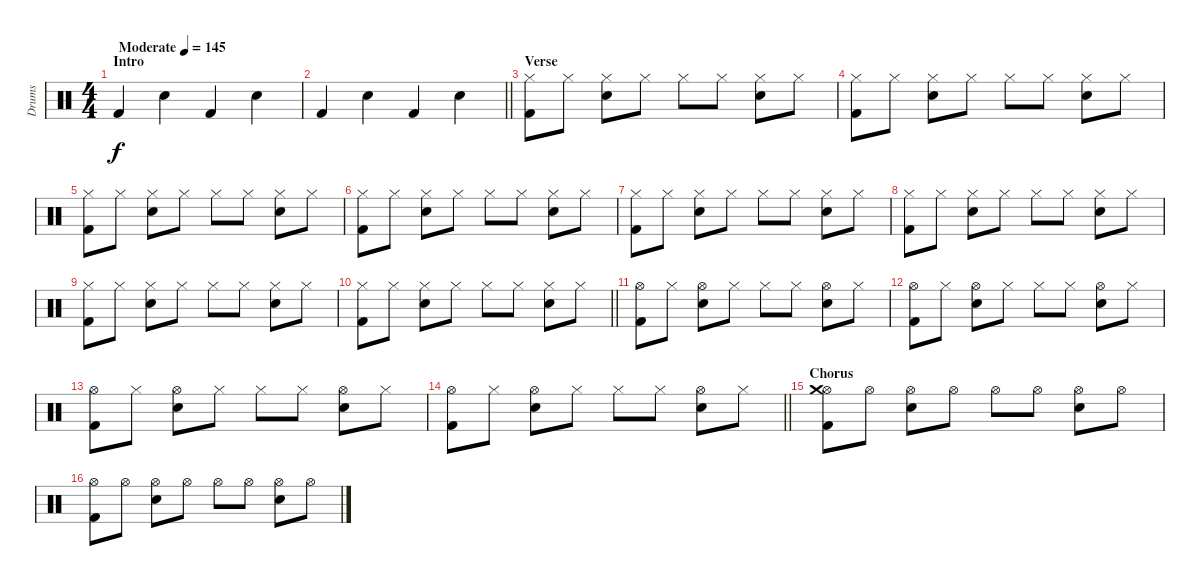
\track ("Drums" "Drums") {instrument percussion}
\staff {score}
\articulation defaults
\ts (4 4)
\section ("" "Intro")
\tempo (145 "Moderate")
\clef neutral
\ks c "Kick (hit) 2".4{dy f} "Electric Snare (hit)".4 "Kick (hit) 2".4 "Electric Snare (hit)".4
|
\barLineRight lightlight "Kick (hit) 2".4 "Electric Snare (hit)".4 "Kick (hit) 2".4 "Electric Snare (hit)".4
|
\section ("" "Verse")
("Hi-Hat (closed)" "Kick (hit) 2").8 "Hi-Hat (closed)".8 ("Hi-Hat (closed)" "Electric Snare (hit)").8 "Hi-Hat (closed)".8 "Hi-Hat (closed)".8 "Hi-Hat (closed)".8 ("Hi-Hat (closed)" "Electric Snare (hit)").8 "Hi-Hat (closed)".8 |
("Hi-Hat (closed)" "Kick (hit) 2").8 "Hi-Hat (closed)".8 ("Hi-Hat (closed)" "Electric Snare (hit)").8 "Hi-Hat (closed)".8 "Hi-Hat (closed)".8 "Hi-Hat (closed)".8 ("Hi-Hat (closed)" "Electric Snare (hit)").8 "Hi-Hat (closed)".8 |
("Hi-Hat (closed)" "Kick (hit) 2").8 "Hi-Hat (closed)".8 ("Hi-Hat (closed)" "Electric Snare (hit)").8 "Hi-Hat (closed)".8 "Hi-Hat (closed)".8 "Hi-Hat (closed)".8 ("Hi-Hat (closed)" "Electric Snare (hit)").8 "Hi-Hat (closed)".8 |
("Hi-Hat (closed)" "Kick (hit) 2").8 "Hi-Hat (closed)".8 ("Hi-Hat (closed)" "Electric Snare (hit)").8 "Hi-Hat (closed)".8 "Hi-Hat (closed)".8 "Hi-Hat (closed)".8 ("Hi-Hat (closed)" "Electric Snare (hit)").8 "Hi-Hat (closed)".8 |
("Hi-Hat (closed)" "Kick (hit) 2").8 "Hi-Hat (closed)".8 ("Hi-Hat (closed)" "Electric Snare (hit)").8 "Hi-Hat (closed)".8 "Hi-Hat (closed)".8 "Hi-Hat (closed)".8 ("Hi-Hat (closed)" "Electric Snare (hit)").8 "Hi-Hat (closed)".8 |
("Hi-Hat (closed)" "Kick (hit) 2").8 "Hi-Hat (closed)".8 ("Hi-Hat (closed)" "Electric Snare (hit)").8 "Hi-Hat (closed)".8 "Hi-Hat (closed)".8 "Hi-Hat (closed)".8 ("Hi-Hat (closed)" "Electric Snare (hit)").8 "Hi-Hat (closed)".8 |
("Hi-Hat (closed)" "Kick (hit) 2").8 "Hi-Hat (closed)".8 ("Hi-Hat (closed)" "Electric Snare (hit)").8 "Hi-Hat (closed)".8 "Hi-Hat (closed)".8 "Hi-Hat (closed)".8 ("Hi-Hat (closed)" "Electric Snare (hit)").8 "Hi-Hat (closed)".8 |
\barLineRight lightlight
("Hi-Hat (closed)" "Kick (hit) 2").8 "Hi-Hat (closed)".8 ("Hi-Hat (closed)" "Electric Snare (hit)").8 "Hi-Hat (closed)".8 "Hi-Hat (closed)".8 "Hi-Hat (closed)".8 ("Hi-Hat (closed)" "Electric Snare (hit)").8 "Hi-Hat (closed)".8 |
("Hi-Hat (open)" "Kick (hit) 2").8 "Hi-Hat (closed)".8 ("Hi-Hat (open)" "Electric Snare (hit)").8 "Hi-Hat (closed)".8 "Hi-Hat (closed)".8 "Hi-Hat (closed)".8 ("Hi-Hat (open)" "Electric Snare (hit)").8 "Hi-Hat (closed)".8 |
("Hi-Hat (open)" "Kick (hit) 2").8 "Hi-Hat (closed)".8 ("Hi-Hat (open)" "Electric Snare (hit)").8 "Hi-Hat (closed)".8 "Hi-Hat (closed)".8 "Hi-Hat (closed)".8 ("Hi-Hat (open)" "Electric Snare (hit)").8 "Hi-Hat (closed)".8 |
("Hi-Hat (open)" "Kick (hit) 2").8 "Hi-Hat (closed)".8 ("Hi-Hat (open)" "Electric Snare (hit)").8 "Hi-Hat (closed)".8 "Hi-Hat (closed)".8 "Hi-Hat (closed)".8 ("Hi-Hat (open)" "Electric Snare (hit)").8 "Hi-Hat (closed)".8 |
\barLineRight lightlight
("Hi-Hat (open)" "Kick (hit) 2").8 "Hi-Hat (closed)".8 ("Hi-Hat (open)" "Electric Snare (hit)").8 "Hi-Hat (closed)".8 "Hi-Hat (closed)".8 "Hi-Hat (closed)".8 ("Hi-Hat (open)" "Electric Snare (hit)").8 "Hi-Hat (closed)".8 |
\section ("" "Chorus")
("Hi-Hat (open)" "Kick (hit) 2" "Crash medium (hit)").8 "Hi-Hat (open)".8 ("Hi-Hat (open)" "Electric Snare (hit)").8 "Hi-Hat (open)".8 "Hi-Hat (open)".8 "Hi-Hat (open)".8 ("Hi-Hat (open)" "Electric Snare (hit)").8 "Hi-Hat (open)".8 |
("Hi-Hat (open)" "Kick (hit) 2").8 "Hi-Hat (open)".8 ("Hi-Hat (open)" "Electric Snare (hit)").8 "Hi-Hat (open)".8 "Hi-Hat (open)".8 "Hi-Hat (open)".8 ("Hi-Hat (open)" "Electric Snare (hit)").8 "Hi-Hat (open)".8
